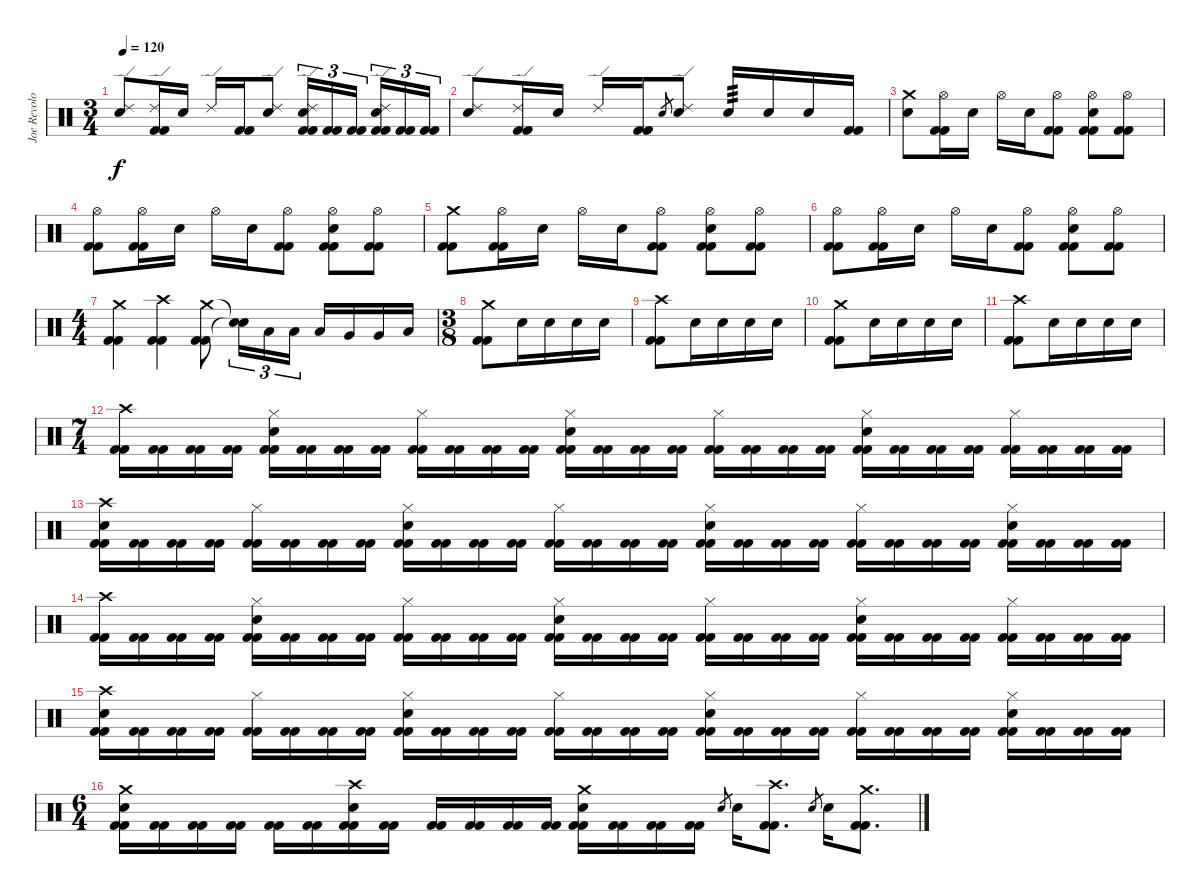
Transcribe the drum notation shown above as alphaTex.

\track ("Joe Revolo" "Joe Revolo") {instrument percussion}
\staff {score}
\articulation defaults
\ts (3 4)
\tempo 120
\clef neutral
\ks c
("Ride (edge) 2" "Electric Snare (hit)").8{dy f} ("Ride (edge) 2" "Kick (hit) 2" "Kick (hit) 2").16 "Electric Snare (hit)".16 "Ride (edge) 2".16 ("Kick (hit) 2" "Kick (hit) 2").16 ("Ride (edge) 2" "Electric Snare (hit)").8 ("Ride (edge) 2" "Electric Snare (hit)" "Kick (hit) 2" "Kick (hit) 2").16{tu (3 2)} ("Kick (hit) 2" "Kick (hit) 2").16{tu (3 2)} ("Kick (hit) 2" "Kick (hit) 2").16{tu (3 2) beam splitsecondary} ("Ride (edge) 2" "Electric Snare (hit)" "Kick (hit) 2" "Kick (hit) 2").16{tu (3 2)} ("Kick (hit) 2" "Kick (hit) 2").16{tu (3 2)} ("Kick (hit) 2" "Kick (hit) 2").16{tu (3 2)} |
("Ride (edge) 2" "Electric Snare (hit)").8 ("Ride (edge) 2" "Kick (hit) 2" "Kick (hit) 2").16 "Electric Snare (hit)".16 "Ride (edge) 2".16 ("Kick (hit) 2" "Kick (hit) 2").16 "Electric Snare (hit)".8{gr} ("Ride (edge) 2" "Electric Snare (hit)").8 "Electric Snare (hit)".16{tp 3} "Electric Snare (hit)".16 "Electric Snare (hit)".16 ("Kick (hit) 2" "Kick (hit) 2").16 |
("Crash medium (hit)" "Electric Snare (hit)").8 ("Hi-Hat (open)" "Kick (hit) 2" "Kick (hit) 2").16 "Electric Snare (hit)".16 "Hi-Hat (open)".16 "Electric Snare (hit)".16 ("Hi-Hat (open)" "Kick (hit) 2" "Kick (hit) 2").8 ("Hi-Hat (open)" "Electric Snare (hit)" "Kick (hit) 2" "Kick (hit) 2").8 ("Hi-Hat (open)" "Kick (hit) 2" "Kick (hit) 2").8 |
("Hi-Hat (open)" "Kick (hit) 2" "Kick (hit) 2").8 ("Hi-Hat (open)" "Kick (hit) 2" "Kick (hit) 2").16 "Electric Snare (hit)".16 "Hi-Hat (open)".16 "Electric Snare (hit)".16 ("Hi-Hat (open)" "Kick (hit) 2" "Kick (hit) 2").8 ("Hi-Hat (open)" "Electric Snare (hit)" "Kick (hit) 2" "Kick (hit) 2").8 ("Hi-Hat (open)" "Kick (hit) 2" "Kick (hit) 2").8 |
("Crash medium (hit)" "Kick (hit) 2" "Kick (hit) 2").8 ("Hi-Hat (open)" "Kick (hit) 2" "Kick (hit) 2").16 "Electric Snare (hit)".16 "Hi-Hat (open)".16 "Electric Snare (hit)".16 ("Hi-Hat (open)" "Kick (hit) 2" "Kick (hit) 2").8 ("Hi-Hat (open)" "Electric Snare (hit)" "Kick (hit) 2" "Kick (hit) 2").8 ("Hi-Hat (open)" "Kick (hit) 2" "Kick (hit) 2").8 |
("Hi-Hat (open)" "Kick (hit) 2" "Kick (hit) 2").8 ("Hi-Hat (open)" "Kick (hit) 2" "Kick (hit) 2").16 "Electric Snare (hit)".16 "Hi-Hat (open)".16 "Electric Snare (hit)".16 ("Hi-Hat (open)" "Kick (hit) 2" "Kick (hit) 2").8 ("Hi-Hat (open)" "Electric Snare (hit)" "Kick (hit) 2" "Kick (hit) 2").8 ("Hi-Hat (open)" "Kick (hit) 2" "Kick (hit) 2").8 |
\ts (4 4)
("Crash medium (hit)" "Kick (hit) 2" "Kick (hit) 2").4 ("Crash high (hit)" "Kick (hit) 2" "Kick (hit) 2").4 ("Crash medium (hit)" "Kick (hit) 2" "Kick (hit) 2").8 ("Snare (hit)"{t} "Snare (hit)"{t}).16{tu (3 2)} "Low Tom (hit)".16{tu (3 2)} "Low Tom (hit)".16{tu (3 2)} "Low Tom (hit)".16 "Very Low Tom (hit)".16 "Very Low Tom (hit)".16 "Low Floor Tom (hit)".16 |
\ts (3 8)
("Crash medium (hit)" "Kick (hit) 2" "Kick (hit) 2").8 "Electric Snare (hit)".16 "Electric Snare (hit)".16 "Electric Snare (hit)".16 "Electric Snare (hit)".16 |
("Crash high (hit)" "Kick (hit) 2" "Kick (hit) 2").8 "Electric Snare (hit)".16 "Electric Snare (hit)".16 "Electric Snare (hit)".16 "Electric Snare (hit)".16 |
("Crash medium (hit)" "Kick (hit) 2" "Kick (hit) 2").8 "Electric Snare (hit)".16 "Electric Snare (hit)".16 "Electric Snare (hit)".16 "Electric Snare (hit)".16 |
("Crash high (hit)" "Kick (hit) 2" "Kick (hit) 2").8 "Electric Snare (hit)".16 "Electric Snare (hit)".16 "Electric Snare (hit)".16 "Electric Snare (hit)".16 |
\ts (7 4)
("Crash high (hit)" "Kick (hit) 2" "Kick (hit) 2").16 ("Kick (hit) 2" "Kick (hit) 2").16 ("Kick (hit) 2" "Kick (hit) 2").16 ("Kick (hit) 2" "Kick (hit) 2").16 ("Hi-Hat (closed)" "Electric Snare (hit)" "Kick (hit) 2" "Kick (hit) 2").16 ("Kick (hit) 2" "Kick (hit) 2").16 ("Kick (hit) 2" "Kick (hit) 2").16 ("Kick (hit) 2" "Kick (hit) 2").16 ("Hi-Hat (closed)" "Kick (hit) 2" "Kick (hit) 2").16 ("Kick (hit) 2" "Kick (hit) 2").16 ("Kick (hit) 2" "Kick (hit) 2").16 ("Kick (hit) 2" "Kick (hit) 2").16 ("Hi-Hat (closed)" "Electric Snare (hit)" "Kick (hit) 2" "Kick (hit) 2").16 ("Kick (hit) 2" "Kick (hit) 2").16 ("Kick (hit) 2" "Kick (hit) 2").16 ("Kick (hit) 2" "Kick (hit) 2").16 ("Hi-Hat (closed)" "Kick (hit) 2" "Kick (hit) 2").16 ("Kick (hit) 2" "Kick (hit) 2").16 ("Kick (hit) 2" "Kick (hit) 2").16 ("Kick (hit) 2" "Kick (hit) 2").16 ("Hi-Hat (closed)" "Electric Snare (hit)" "Kick (hit) 2" "Kick (hit) 2").16 ("Kick (hit) 2" "Kick (hit) 2").16 ("Kick (hit) 2" "Kick (hit) 2").16 ("Kick (hit) 2" "Kick (hit) 2").16 ("Hi-Hat (closed)" "Kick (hit) 2" "Kick (hit) 2").16 ("Kick (hit) 2" "Kick (hit) 2").16 ("Kick (hit) 2" "Kick (hit) 2").16 ("Kick (hit) 2" "Kick (hit) 2").16 |
("Crash high (hit)" "Electric Snare (hit)" "Kick (hit) 2" "Kick (hit) 2").16 ("Kick (hit) 2" "Kick (hit) 2").16 ("Kick (hit) 2" "Kick (hit) 2").16 ("Kick (hit) 2" "Kick (hit) 2").16 ("Hi-Hat (closed)" "Kick (hit) 2" "Kick (hit) 2").16 ("Kick (hit) 2" "Kick (hit) 2").16 ("Kick (hit) 2" "Kick (hit) 2").16 ("Kick (hit) 2" "Kick (hit) 2").16 ("Hi-Hat (closed)" "Electric Snare (hit)" "Kick (hit) 2" "Kick (hit) 2").16 ("Kick (hit) 2" "Kick (hit) 2").16 ("Kick (hit) 2" "Kick (hit) 2").16 ("Kick (hit) 2" "Kick (hit) 2").16 ("Hi-Hat (closed)" "Kick (hit) 2" "Kick (hit) 2").16 ("Kick (hit) 2" "Kick (hit) 2").16 ("Kick (hit) 2" "Kick (hit) 2").16 ("Kick (hit) 2" "Kick (hit) 2").16 ("Hi-Hat (closed)" "Electric Snare (hit)" "Kick (hit) 2" "Kick (hit) 2").16 ("Kick (hit) 2" "Kick (hit) 2").16 ("Kick (hit) 2" "Kick (hit) 2").16 ("Kick (hit) 2" "Kick (hit) 2").16 ("Hi-Hat (closed)" "Kick (hit) 2" "Kick (hit) 2").16 ("Kick (hit) 2" "Kick (hit) 2").16 ("Kick (hit) 2" "Kick (hit) 2").16 ("Kick (hit) 2" "Kick (hit) 2").16 ("Hi-Hat (closed)" "Electric Snare (hit)" "Kick (hit) 2" "Kick (hit) 2").16 ("Kick (hit) 2" "Kick (hit) 2").16 ("Kick (hit) 2" "Kick (hit) 2").16 ("Kick (hit) 2" "Kick (hit) 2").16 |
("Crash high (hit)" "Kick (hit) 2" "Kick (hit) 2").16 ("Kick (hit) 2" "Kick (hit) 2").16 ("Kick (hit) 2" "Kick (hit) 2").16 ("Kick (hit) 2" "Kick (hit) 2").16 ("Hi-Hat (closed)" "Electric Snare (hit)" "Kick (hit) 2" "Kick (hit) 2").16 ("Kick (hit) 2" "Kick (hit) 2").16 ("Kick (hit) 2" "Kick (hit) 2").16 ("Kick (hit) 2" "Kick (hit) 2").16 ("Hi-Hat (closed)" "Kick (hit) 2" "Kick (hit) 2").16 ("Kick (hit) 2" "Kick (hit) 2").16 ("Kick (hit) 2" "Kick (hit) 2").16 ("Kick (hit) 2" "Kick (hit) 2").16 ("Hi-Hat (closed)" "Electric Snare (hit)" "Kick (hit) 2" "Kick (hit) 2").16 ("Kick (hit) 2" "Kick (hit) 2").16 ("Kick (hit) 2" "Kick (hit) 2").16 ("Kick (hit) 2" "Kick (hit) 2").16 ("Hi-Hat (closed)" "Kick (hit) 2" "Kick (hit) 2").16 ("Kick (hit) 2" "Kick (hit) 2").16 ("Kick (hit) 2" "Kick (hit) 2").16 ("Kick (hit) 2" "Kick (hit) 2").16 ("Hi-Hat (closed)" "Electric Snare (hit)" "Kick (hit) 2" "Kick (hit) 2").16 ("Kick (hit) 2" "Kick (hit) 2").16 ("Kick (hit) 2" "Kick (hit) 2").16 ("Kick (hit) 2" "Kick (hit) 2").16 ("Hi-Hat (closed)" "Kick (hit) 2" "Kick (hit) 2").16 ("Kick (hit) 2" "Kick (hit) 2").16 ("Kick (hit) 2" "Kick (hit) 2").16 ("Kick (hit) 2" "Kick (hit) 2").16 |
("Crash high (hit)" "Electric Snare (hit)" "Kick (hit) 2" "Kick (hit) 2").16 ("Kick (hit) 2" "Kick (hit) 2").16 ("Kick (hit) 2" "Kick (hit) 2").16 ("Kick (hit) 2" "Kick (hit) 2").16 ("Hi-Hat (closed)" "Kick (hit) 2" "Kick (hit) 2").16 ("Kick (hit) 2" "Kick (hit) 2").16 ("Kick (hit) 2" "Kick (hit) 2").16 ("Kick (hit) 2" "Kick (hit) 2").16 ("Hi-Hat (closed)" "Electric Snare (hit)" "Kick (hit) 2" "Kick (hit) 2").16 ("Kick (hit) 2" "Kick (hit) 2").16 ("Kick (hit) 2" "Kick (hit) 2").16 ("Kick (hit) 2" "Kick (hit) 2").16 ("Hi-Hat (closed)" "Kick (hit) 2" "Kick (hit) 2").16 ("Kick (hit) 2" "Kick (hit) 2").16 ("Kick (hit) 2" "Kick (hit) 2").16 ("Kick (hit) 2" "Kick (hit) 2").16 ("Hi-Hat (closed)" "Electric Snare (hit)" "Kick (hit) 2" "Kick (hit) 2").16 ("Kick (hit) 2" "Kick (hit) 2").16 ("Kick (hit) 2" "Kick (hit) 2").16 ("Kick (hit) 2" "Kick (hit) 2").16 ("Hi-Hat (closed)" "Kick (hit) 2" "Kick (hit) 2").16 ("Kick (hit) 2" "Kick (hit) 2").16 ("Kick (hit) 2" "Kick (hit) 2").16 ("Kick (hit) 2" "Kick (hit) 2").16 ("Hi-Hat (closed)" "Electric Snare (hit)" "Kick (hit) 2" "Kick (hit) 2").16 ("Kick (hit) 2" "Kick (hit) 2").16 ("Kick (hit) 2" "Kick (hit) 2").16 ("Kick (hit) 2" "Kick (hit) 2").16 |
\ts (6 4)
("Crash medium (hit)" "Electric Snare (hit)" "Kick (hit) 2" "Kick (hit) 2").16 ("Kick (hit) 2" "Kick (hit) 2").16 ("Kick (hit) 2" "Kick (hit) 2").16 ("Kick (hit) 2" "Kick (hit) 2").16 ("Kick (hit) 2" "Kick (hit) 2").16 ("Kick (hit) 2" "Kick (hit) 2").16 ("Crash high (hit)" "Electric Snare (hit)" "Kick (hit) 2" "Kick (hit) 2").16 ("Kick (hit) 2" "Kick (hit) 2").16 ("Kick (hit) 2" "Kick (hit) 2").16 ("Kick (hit) 2" "Kick (hit) 2").16 ("Kick (hit) 2" "Kick (hit) 2").16 ("Kick (hit) 2" "Kick (hit) 2").16 ("Crash medium (hit)" "Electric Snare (hit)" "Kick (hit) 2" "Kick (hit) 2").16 ("Kick (hit) 2" "Kick (hit) 2").16 ("Kick (hit) 2" "Kick (hit) 2").16 ("Kick (hit) 2" "Kick (hit) 2").16 "Electric Snare (hit)".8{gr} "Electric Snare (hit)".16 ("Crash high (hit)" "Kick (hit) 2" "Kick (hit) 2").8{d} "Electric Snare (hit)".8{gr} "Electric Snare (hit)".16 ("Crash medium (hit)" "Kick (hit) 2" "Kick (hit) 2").8{d}
